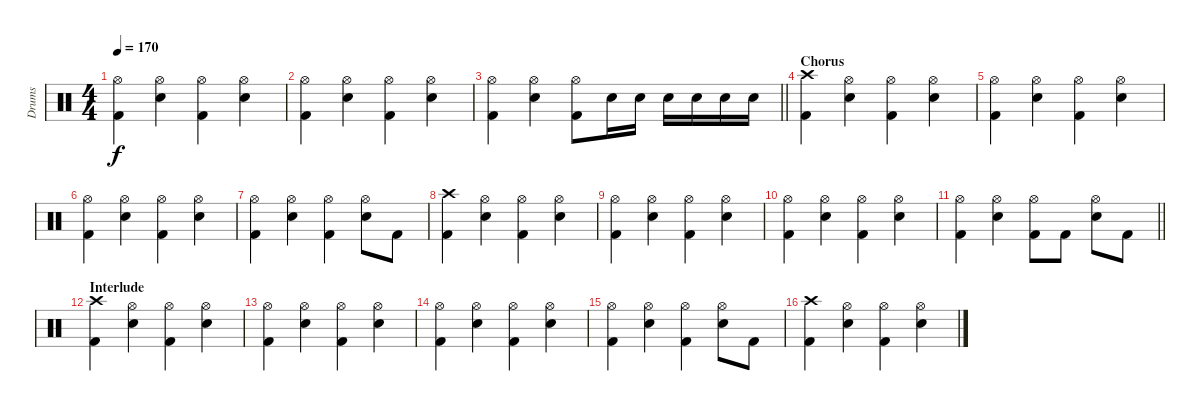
\track ("Drums" "Drums") {instrument percussion}
\staff {score}
\articulation defaults
\ts (4 4)
\tempo 170
\clef neutral
\ks c
("Hi-Hat (open)" "Kick (hit) 2").4{dy f} ("Hi-Hat (open)" "Snare (hit) 2").4 ("Hi-Hat (open)" "Kick (hit) 2").4 ("Hi-Hat (open)" "Snare (hit) 2").4 |
("Hi-Hat (open)" "Kick (hit) 2").4 ("Hi-Hat (open)" "Snare (hit) 2").4 ("Hi-Hat (open)" "Kick (hit) 2").4 ("Hi-Hat (open)" "Snare (hit) 2").4 |
\barLineRight lightlight
("Hi-Hat (open)" "Kick (hit) 2").4 ("Hi-Hat (open)" "Snare (hit) 2").4 ("Hi-Hat (open)" "Kick (hit) 2").8 "Snare (hit) 2".16 "Snare (hit) 2".16 "Snare (hit) 2".16 "Snare (hit) 2".16 "Snare (hit) 2".16 "Snare (hit) 2".16 |
\section ("" "Chorus")
("Crash high (hit)" "Kick (hit) 2").4 ("Hi-Hat (open)" "Snare (hit) 2").4 ("Hi-Hat (open)" "Kick (hit) 2").4 ("Hi-Hat (open)" "Snare (hit) 2").4 |
("Hi-Hat (open)" "Kick (hit) 2").4 ("Hi-Hat (open)" "Snare (hit) 2").4 ("Hi-Hat (open)" "Kick (hit) 2").4 ("Hi-Hat (open)" "Snare (hit) 2").4 |
("Hi-Hat (open)" "Kick (hit) 2").4 ("Hi-Hat (open)" "Snare (hit) 2").4 ("Hi-Hat (open)" "Kick (hit) 2").4 ("Hi-Hat (open)" "Snare (hit) 2").4 |
("Hi-Hat (open)" "Kick (hit) 2").4 ("Hi-Hat (open)" "Snare (hit) 2").4 ("Hi-Hat (open)" "Kick (hit) 2").4 ("Hi-Hat (open)" "Snare (hit) 2").8 "Kick (hit) 2".8 |
("Crash high (hit)" "Kick (hit) 2").4 ("Hi-Hat (open)" "Snare (hit) 2").4 ("Hi-Hat (open)" "Kick (hit) 2").4 ("Hi-Hat (open)" "Snare (hit) 2").4 |
("Hi-Hat (open)" "Kick (hit) 2").4 ("Hi-Hat (open)" "Snare (hit) 2").4 ("Hi-Hat (open)" "Kick (hit) 2").4 ("Hi-Hat (open)" "Snare (hit) 2").4 |
("Hi-Hat (open)" "Kick (hit) 2").4 ("Hi-Hat (open)" "Snare (hit) 2").4 ("Hi-Hat (open)" "Kick (hit) 2").4 ("Hi-Hat (open)" "Snare (hit) 2").4 |
\barLineRight lightlight
("Hi-Hat (open)" "Kick (hit) 2").4 ("Hi-Hat (open)" "Snare (hit) 2").4 ("Hi-Hat (open)" "Kick (hit) 2").8 "Kick (hit) 2".8 ("Hi-Hat (open)" "Snare (hit) 2").8 "Kick (hit) 2".8 |
\section ("" "Interlude")
("Crash high (hit)" "Kick (hit) 2").4 ("Hi-Hat (open)" "Snare (hit) 2").4 ("Hi-Hat (open)" "Kick (hit) 2").4 ("Hi-Hat (open)" "Snare (hit) 2").4 |
("Hi-Hat (open)" "Kick (hit) 2").4 ("Hi-Hat (open)" "Snare (hit) 2").4 ("Hi-Hat (open)" "Kick (hit) 2").4 ("Hi-Hat (open)" "Snare (hit) 2").4 |
("Hi-Hat (open)" "Kick (hit) 2").4 ("Hi-Hat (open)" "Snare (hit) 2").4 ("Hi-Hat (open)" "Kick (hit) 2").4 ("Hi-Hat (open)" "Snare (hit) 2").4 |
("Hi-Hat (open)" "Kick (hit) 2").4 ("Hi-Hat (open)" "Snare (hit) 2").4 ("Hi-Hat (open)" "Kick (hit) 2").4 ("Hi-Hat (open)" "Snare (hit) 2").8 "Kick (hit) 2".8 |
("Crash high (hit)" "Kick (hit) 2").4 ("Hi-Hat (open)" "Snare (hit) 2").4 ("Hi-Hat (open)" "Kick (hit) 2").4 ("Hi-Hat (open)" "Snare (hit) 2").4
